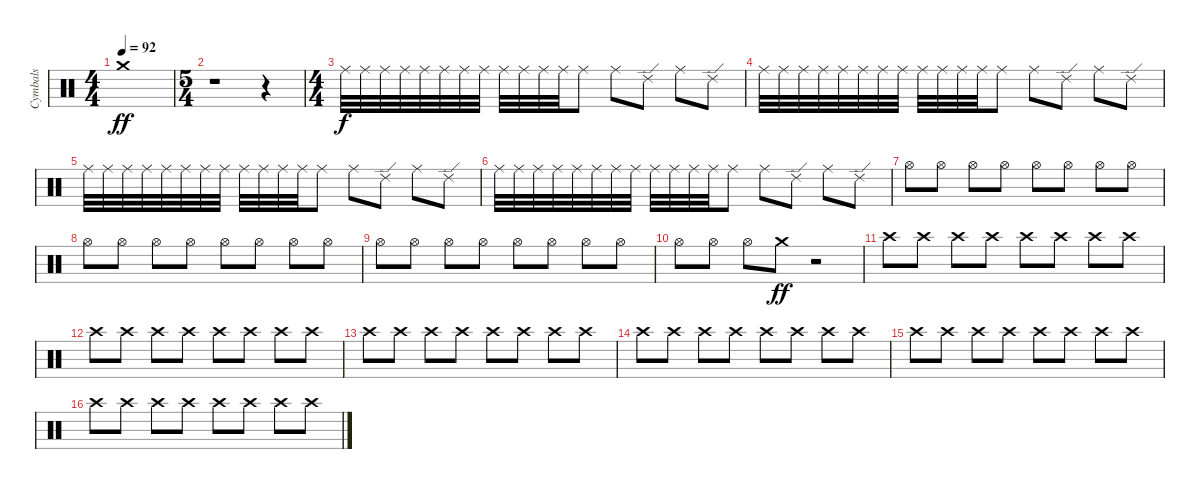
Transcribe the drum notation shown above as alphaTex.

\track ("Cymbals" "Cymbals") {instrument percussion}
\staff {score}
\articulation defaults
\ts (4 4)
\tempo 92
\clef neutral
\ks c "Crash medium (hit)".1{dy ff}
|
\ts (5 4)
r.1 r.4 |
\ts (4 4)
"Ride (middle)".32{dy f} "Ride (middle)".32 "Ride (middle)".32 "Ride (middle)".32 "Ride (middle)".32 "Ride (middle)".32 "Ride (middle)".32 "Ride (middle)".32 "Ride (middle)".32 "Ride (middle)".32 "Ride (middle)".32 "Ride (middle)".32 "Ride (middle)".8 "Ride (middle)".8 "Ride (edge) 2".8 "Ride (middle)".8 "Ride (edge) 2".8 |
"Ride (middle)".32 "Ride (middle)".32 "Ride (middle)".32 "Ride (middle)".32 "Ride (middle)".32 "Ride (middle)".32 "Ride (middle)".32 "Ride (middle)".32 "Ride (middle)".32 "Ride (middle)".32 "Ride (middle)".32 "Ride (middle)".32 "Ride (middle)".8 "Ride (middle)".8 "Ride (edge) 2".8 "Ride (middle)".8 "Ride (edge) 2".8 |
"Ride (middle)".32 "Ride (middle)".32 "Ride (middle)".32 "Ride (middle)".32 "Ride (middle)".32 "Ride (middle)".32 "Ride (middle)".32 "Ride (middle)".32 "Ride (middle)".32 "Ride (middle)".32 "Ride (middle)".32 "Ride (middle)".32 "Ride (middle)".8 "Ride (middle)".8 "Ride (edge) 2".8 "Ride (middle)".8 "Ride (edge) 2".8 |
"Ride (middle)".32 "Ride (middle)".32 "Ride (middle)".32 "Ride (middle)".32 "Ride (middle)".32 "Ride (middle)".32 "Ride (middle)".32 "Ride (middle)".32 "Ride (middle)".32 "Ride (middle)".32 "Ride (middle)".32 "Ride (middle)".32 "Ride (middle)".8 "Ride (middle)".8 "Ride (edge) 2".8 "Ride (middle)".8 "Ride (edge) 2".8 |
"Hi-Hat (open)".8 "Hi-Hat (open)".8 "Hi-Hat (open)".8 "Hi-Hat (open)".8 "Hi-Hat (open)".8 "Hi-Hat (open)".8 "Hi-Hat (open)".8 "Hi-Hat (open)".8 |
"Hi-Hat (open)".8 "Hi-Hat (open)".8 "Hi-Hat (open)".8 "Hi-Hat (open)".8 "Hi-Hat (open)".8 "Hi-Hat (open)".8 "Hi-Hat (open)".8 "Hi-Hat (open)".8 |
"Hi-Hat (open)".8 "Hi-Hat (open)".8 "Hi-Hat (open)".8 "Hi-Hat (open)".8 "Hi-Hat (open)".8 "Hi-Hat (open)".8 "Hi-Hat (open)".8 "Hi-Hat (open)".8 |
"Hi-Hat (open)".8 "Hi-Hat (open)".8 "Hi-Hat (open)".8 "Crash medium (hit)".8{dy ff} r.2 |
"Crash high (hit)".8 "Crash high (hit)".8 "Crash high (hit)".8 "Crash high (hit)".8 "Crash high (hit)".8 "Crash high (hit)".8 "Crash high (hit)".8 "Crash high (hit)".8 |
"Crash high (hit)".8 "Crash high (hit)".8 "Crash high (hit)".8 "Crash high (hit)".8 "Crash high (hit)".8 "Crash high (hit)".8 "Crash high (hit)".8 "Crash high (hit)".8 |
"Crash high (hit)".8 "Crash high (hit)".8 "Crash high (hit)".8 "Crash high (hit)".8 "Crash high (hit)".8 "Crash high (hit)".8 "Crash high (hit)".8 "Crash high (hit)".8 |
"Crash high (hit)".8 "Crash high (hit)".8 "Crash high (hit)".8 "Crash high (hit)".8 "Crash high (hit)".8 "Crash high (hit)".8 "Crash high (hit)".8 "Crash high (hit)".8 |
"Crash high (hit)".8 "Crash high (hit)".8 "Crash high (hit)".8 "Crash high (hit)".8 "Crash high (hit)".8 "Crash high (hit)".8 "Crash high (hit)".8 "Crash high (hit)".8 |
"Crash high (hit)".8 "Crash high (hit)".8 "Crash high (hit)".8 "Crash high (hit)".8 "Crash high (hit)".8 "Crash high (hit)".8 "Crash high (hit)".8 "Crash high (hit)".8
